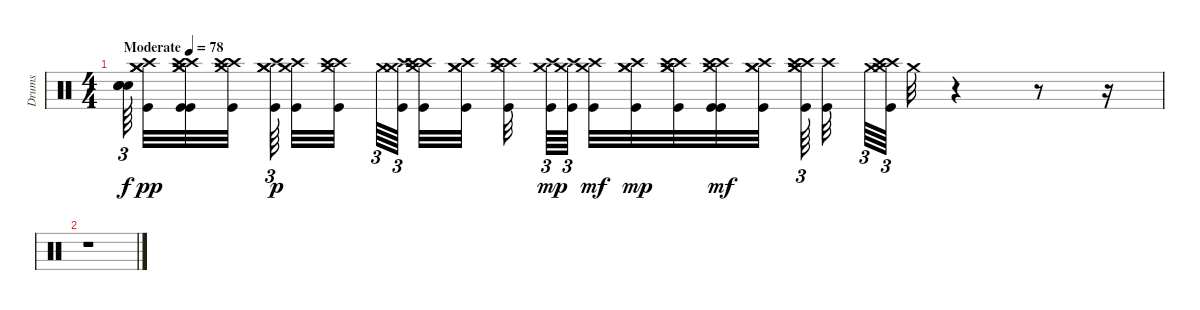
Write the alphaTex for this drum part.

\track ("Drums" "Drums") {instrument percussion}
\staff {score}
\articulation defaults
\ts (4 4)
\tempo (78 "Moderate")
\clef neutral
\ks c
("Snare (hit)" "Snare (hit)" "Snare (hit)" "Snare (hit)").64{tu (3 2) dy f} ("Kick (hit)" "Crash medium (hit)" "Crash high (hit)" "Crash medium (hit)").32{dy pp} ("Kick (hit)" "Crash high (hit)" "Crash medium (hit)" "Crash high (hit)" "Kick (hit)" "Crash medium (hit)").32 ("Crash high (hit)" "Crash medium (hit)" "Kick (hit)" "Crash high (hit)").32 ("Crash medium (hit)" "Kick (hit)" "Crash high (hit)" "Crash medium (hit)").64{tu (3 2) dy p} ("Crash high (hit)" "Kick (hit)" "Crash medium (hit)").32 ("Crash high (hit)" "Crash medium (hit)" "Kick (hit)" "Crash high (hit)").32 "Crash medium (hit)".64{tu (3 2)} ("Crash high (hit)" "Kick (hit)" "Crash medium (hit)").64{tu (3 2)} ("Crash high (hit)" "Crash medium (hit)" "Kick (hit)" "Crash high (hit)").32 ("Crash medium (hit)" "Kick (hit)" "Crash high (hit)" "Crash medium (hit)").32 ("Crash high (hit)" "Kick (hit)" "Crash medium (hit)" "Crash high (hit)").32 ("Kick (hit)" "Crash medium (hit)" "Crash high (hit)").64{tu (3 2) dy mp} ("Crash medium (hit)" "Kick (hit)" "Crash high (hit)").64{tu (3 2)} ("Crash medium (hit)" "Crash high (hit)" "Kick (hit)").32{dy mf} ("Crash medium (hit)" "Crash high (hit)" "Kick (hit)" "Crash medium (hit)").32{dy mp} ("Crash high (hit)" "Crash medium (hit)" "Kick (hit)" "Crash high (hit)" "Crash medium (hit)").32 ("Kick (hit)" "Crash high (hit)" "Crash medium (hit)" "Crash high (hit)" "Kick (hit)").32{dy mf} ("Crash medium (hit)" "Crash high (hit)" "Crash medium (hit)" "Kick (hit)").32 ("Crash high (hit)" "Crash medium (hit)" "Kick (hit)" "Crash high (hit)" "Crash medium (hit)").64{tu (3 2)} ("Kick (hit)" "Crash high (hit)").32 "Crash medium (hit)".64{tu (3 2)} ("Crash high (hit)" "Kick (hit)" "Crash medium (hit)" "Crash high (hit)").64{tu (3 2)} "Crash medium (hit)".32 r.4 r.8 r.16 |
r.1
